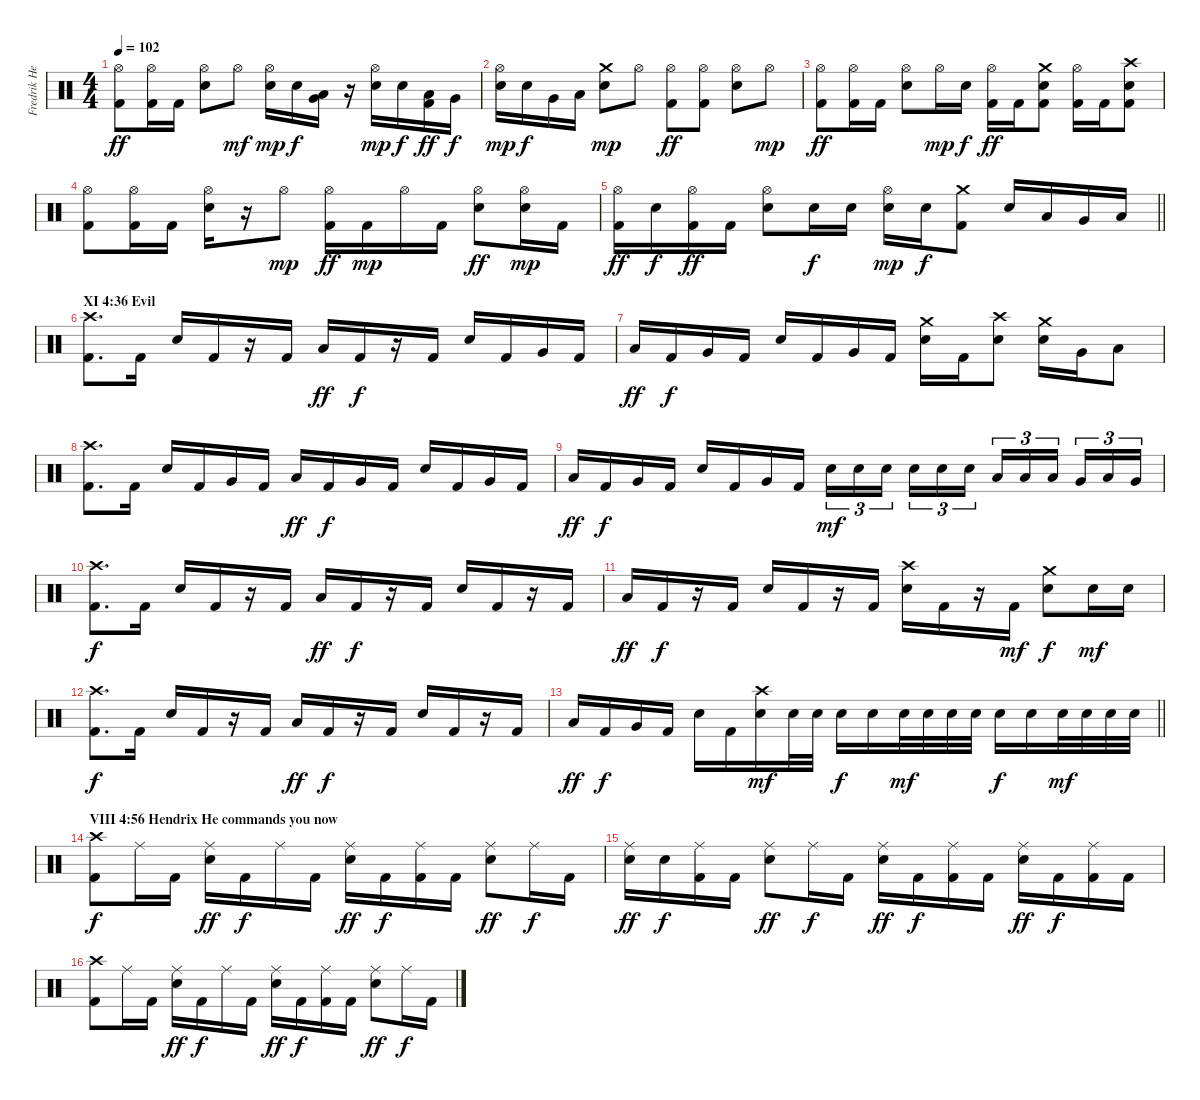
\track ("Fredrik Hellerström (Drums)" "Fredrik He") {instrument percussion}
\staff
\articulation defaults
\ts (4 4)
\tempo 102
\clef neutral
\ks c
("Hi-Hat (open)" "Kick (hit) 2").8{dy ff} ("Hi-Hat (open)" "Kick (hit) 2").16 "Kick (hit) 2".16 ("Hi-Hat (open)" "Electric Snare (hit)").8 "Hi-Hat (open)".8{dy mf} ("Hi-Hat (open)" "Electric Snare (hit)").16{dy mp} "Electric Snare (hit)".16{dy f} ("Low Tom (hit)" "Very Low Tom (hit)").16 r.16 ("Hi-Hat (open)" "Electric Snare (hit)").16{dy mp} "Electric Snare (hit)".16{dy f} ("Low Tom (hit)" "Kick (hit) 2").16{dy ff} "Very Low Tom (hit)".16{dy f} |
("Hi-Hat (open)" "Electric Snare (hit)").16{dy mp} "Electric Snare (hit)".16{dy f} "Very Low Tom (hit)".16 "Low Floor Tom (hit)".16 ("Crash medium (hit)" "Electric Snare (hit)").8{dy mp} "Hi-Hat (open)".8 ("Hi-Hat (open)" "Kick (hit) 2").8{dy ff} ("Hi-Hat (open)" "Kick (hit) 2").8 ("Hi-Hat (open)" "Electric Snare (hit)").8 "Hi-Hat (open)".8{dy mp} |
("Hi-Hat (open)" "Kick (hit) 2").8{dy ff} ("Hi-Hat (open)" "Kick (hit) 2").16 "Kick (hit) 2".16 ("Hi-Hat (open)" "Electric Snare (hit)").8 "Hi-Hat (open)".16{dy mp} "Electric Snare (hit)".16{dy f} ("Hi-Hat (open)" "Kick (hit) 2").16{dy ff} "Kick (hit) 2".16 ("Crash medium (hit)" "Electric Snare (hit)" "Kick (hit) 2").8 ("Hi-Hat (open)" "Kick (hit) 2").16 "Kick (hit) 2".16 ("Crash high (hit)" "Electric Snare (hit)" "Kick (hit) 2").8 |
("Hi-Hat (open)" "Kick (hit) 2").8 ("Hi-Hat (open)" "Kick (hit) 2").16 "Kick (hit) 2".16 ("Hi-Hat (open)" "Electric Snare (hit)").16 r.16 "Hi-Hat (open)".8{dy mp} ("Hi-Hat (open)" "Kick (hit) 2").16{dy ff} "Kick (hit) 2".16{dy mp} "Hi-Hat (open)".16 "Kick (hit) 2".16 ("Hi-Hat (open)" "Electric Snare (hit)").8{dy ff} ("Hi-Hat (open)" "Electric Snare (hit)").16{dy mp} "Kick (hit) 2".16 |
\barLineRight lightlight
("Hi-Hat (open)" "Kick (hit) 2").16{dy ff} "Electric Snare (hit)".16{dy f} ("Hi-Hat (open)" "Kick (hit) 2").16{dy ff} "Kick (hit) 2".16 ("Hi-Hat (open)" "Electric Snare (hit)").8 "Electric Snare (hit)".16{dy f} "Electric Snare (hit)".16 ("Hi-Hat (open)" "Electric Snare (hit)").16{dy mp} "Electric Snare (hit)".16{dy f} ("Crash medium (hit)" "Kick (hit) 2").8 "Electric Snare (hit)".16 "Low Tom (hit)".16 "Very Low Tom (hit)".16 "Low Floor Tom (hit)".16 |
\section ("" "XI 4:36 Evil")
("Crash high (hit)" "Kick (hit) 2").8{d} "Kick (hit) 2".16 "Electric Snare (hit)".16 "Kick (hit) 2".16 r.16 "Kick (hit) 2".16 "Low Tom (hit)".16{dy ff} "Kick (hit) 2".16{dy f} r.16 "Kick (hit) 2".16 "Electric Snare (hit)".16 "Kick (hit) 2".16 "Very Low Tom (hit)".16 "Kick (hit) 2".16 |
"Low Tom (hit)".16{dy ff} "Kick (hit) 2".16{dy f} "Very Low Tom (hit)".16 "Kick (hit) 2".16 "Electric Snare (hit)".16 "Kick (hit) 2".16 "Very Low Tom (hit)".16 "Kick (hit) 2".16 ("Crash medium (hit)" "Electric Snare (hit)").16 "Kick (hit) 2".16 ("Crash high (hit)" "Electric Snare (hit)").8 ("Crash medium (hit)" "Electric Snare (hit)").16 "Very Low Tom (hit)".16 "Low Tom (hit)".8 |
("Crash high (hit)" "Kick (hit) 2").8{d} "Kick (hit) 2".16 "Electric Snare (hit)".16 "Kick (hit) 2".16 "Very Low Tom (hit)".16 "Kick (hit) 2".16 "Low Tom (hit)".16{dy ff} "Kick (hit) 2".16{dy f} "Very Low Tom (hit)".16 "Kick (hit) 2".16 "Electric Snare (hit)".16 "Kick (hit) 2".16 "Very Low Tom (hit)".16 "Kick (hit) 2".16 |
"Low Tom (hit)".16{dy ff} "Kick (hit) 2".16{dy f} "Very Low Tom (hit)".16 "Kick (hit) 2".16 "Electric Snare (hit)".16 "Kick (hit) 2".16 "Very Low Tom (hit)".16 "Kick (hit) 2".16 "Electric Snare (hit)".16{tu (3 2) dy mf} "Electric Snare (hit)".16{tu (3 2)} "Electric Snare (hit)".16{tu (3 2) beam splitsecondary} "Electric Snare (hit)".16{tu (3 2)} "Electric Snare (hit)".16{tu (3 2)} "Electric Snare (hit)".16{tu (3 2)} "Low Tom (hit)".16{tu (3 2)} "Low Tom (hit)".16{tu (3 2)} "Low Tom (hit)".16{tu (3 2) beam splitsecondary} "Very Low Tom (hit)".16{tu (3 2)} "Low Tom (hit)".16{tu (3 2)} "Very Low Tom (hit)".16{tu (3 2)} |
("Crash high (hit)" "Kick (hit) 2").8{d dy f} "Kick (hit) 2".16 "Electric Snare (hit)".16 "Kick (hit) 2".16 r.16 "Kick (hit) 2".16 "Low Tom (hit)".16{dy ff} "Kick (hit) 2".16{dy f} r.16 "Kick (hit) 2".16 "Electric Snare (hit)".16 "Kick (hit) 2".16 r.16 "Kick (hit) 2".16 |
"Low Tom (hit)".16{dy ff} "Kick (hit) 2".16{dy f} r.16 "Kick (hit) 2".16 "Electric Snare (hit)".16 "Kick (hit) 2".16 r.16 "Kick (hit) 2".16 ("Crash high (hit)" "Electric Snare (hit)").16 "Kick (hit) 2".16 r.16 "Kick (hit) 2".16{dy mf} ("Crash medium (hit)" "Electric Snare (hit)").8{dy f} "Electric Snare (hit)".16{dy mf} "Electric Snare (hit)".16 |
("Crash high (hit)" "Kick (hit) 2").8{d dy f} "Kick (hit) 2".16 "Electric Snare (hit)".16 "Kick (hit) 2".16 r.16 "Kick (hit) 2".16 "Low Tom (hit)".16{dy ff} "Kick (hit) 2".16{dy f} r.16 "Kick (hit) 2".16 "Electric Snare (hit)".16 "Kick (hit) 2".16 r.16 "Kick (hit) 2".16 |
\barLineRight lightlight "Low Tom (hit)".16{dy ff} "Kick (hit) 2".16{dy f} "Very Low Tom (hit)".16 "Kick (hit) 2".16 "Electric Snare (hit)".16 "Kick (hit) 2".16
("Crash high (hit)" "Electric Snare (hit)").16{dy mf} "Electric Snare (hit)".32 "Electric Snare (hit)".32 "Electric Snare (hit)".16{dy f} "Electric Snare (hit)".16 "Electric Snare (hit)".32{dy mf} "Electric Snare (hit)".32 "Electric Snare (hit)".32 "Electric Snare (hit)".32 "Electric Snare (hit)".16{dy f} "Electric Snare (hit)".16 "Electric Snare (hit)".32{dy mf} "Electric Snare (hit)".32 "Electric Snare (hit)".32 "Electric Snare (hit)".32 |
\section ("" "VIII 4:56 Hendrix He commands you now")
("Crash high (hit)" "Kick (hit) 2").8{dy f} "Ride (middle)".16 "Kick (hit) 2".16 ("Ride (middle)" "Electric Snare (hit)").16{dy ff} "Kick (hit) 2".16{dy f} "Ride (middle)".16 "Kick (hit) 2".16 ("Ride (middle)" "Electric Snare (hit)").16{dy ff} "Kick (hit) 2".16{dy f} ("Ride (middle)" "Kick (hit) 2").16 "Kick (hit) 2".16 ("Ride (middle)" "Electric Snare (hit)").8{dy ff} "Ride (middle)".16{dy f} "Kick (hit) 2".16 |
("Ride (middle)" "Electric Snare (hit)").16{dy ff} "Electric Snare (hit)".16{dy f} ("Ride (middle)" "Kick (hit) 2").16 "Kick (hit) 2".16 ("Ride (middle)" "Electric Snare (hit)").8{dy ff} "Ride (middle)".16{dy f} "Kick (hit) 2".16 ("Ride (middle)" "Electric Snare (hit)").16{dy ff} "Kick (hit) 2".16{dy f} ("Ride (middle)" "Kick (hit) 2").16 "Kick (hit) 2".16 ("Ride (middle)" "Electric Snare (hit)").16{dy ff} "Kick (hit) 2".16{dy f} ("Ride (middle)" "Kick (hit) 2").16 "Kick (hit) 2".16 |
("Crash high (hit)" "Kick (hit) 2").8 "Ride (middle)".16 "Kick (hit) 2".16 ("Ride (middle)" "Electric Snare (hit)").16{dy ff} "Kick (hit) 2".16{dy f} "Ride (middle)".16 "Kick (hit) 2".16 ("Ride (middle)" "Electric Snare (hit)").16{dy ff} "Kick (hit) 2".16{dy f} ("Ride (middle)" "Kick (hit) 2").16 "Kick (hit) 2".16 ("Ride (middle)" "Electric Snare (hit)").8{dy ff} "Ride (middle)".16{dy f} "Kick (hit) 2".16
